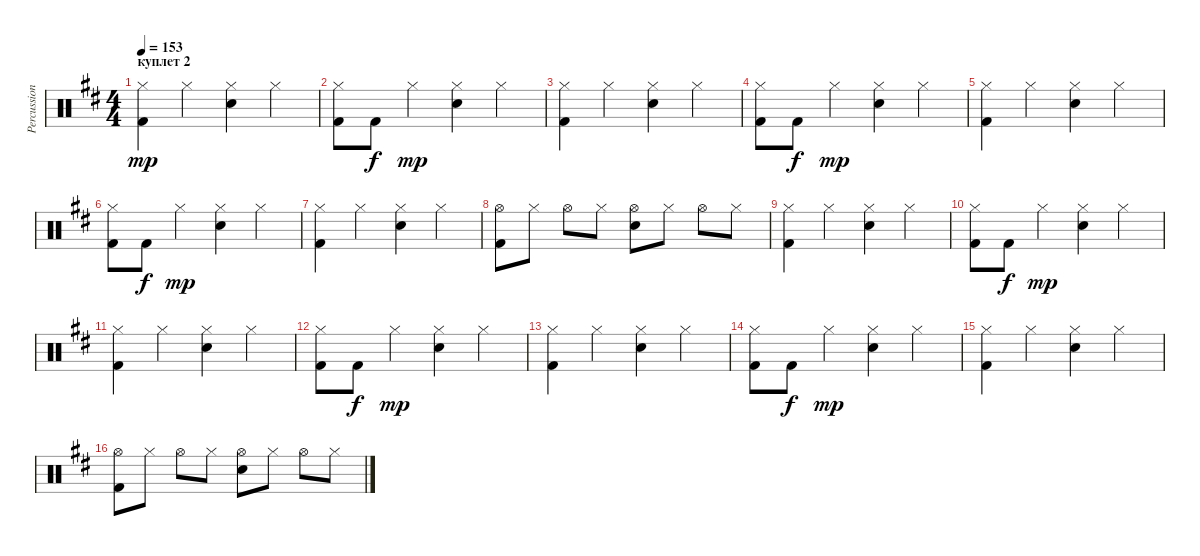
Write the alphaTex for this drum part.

\track ("Percussion" "Percussion") {instrument percussion}
\staff {score}
\articulation defaults
\ts (4 4)
\section ("" "куплет 2")
\tempo 153
\clef neutral
\ks bminor
("Kick (hit) 2" "Hi-Hat (closed)").4{dy mp} "Hi-Hat (closed)".4 ("Electric Snare (hit)" "Hi-Hat (closed)").4 "Hi-Hat (closed)".4 |
("Kick (hit) 2" "Hi-Hat (closed)").8 "Kick (hit) 2".8{dy f} "Hi-Hat (closed)".4{dy mp} ("Electric Snare (hit)" "Hi-Hat (closed)").4 "Hi-Hat (closed)".4 |
("Kick (hit) 2" "Hi-Hat (closed)").4 "Hi-Hat (closed)".4 ("Electric Snare (hit)" "Hi-Hat (closed)").4 "Hi-Hat (closed)".4 |
("Kick (hit) 2" "Hi-Hat (closed)").8 "Kick (hit) 2".8{dy f} "Hi-Hat (closed)".4{dy mp} ("Electric Snare (hit)" "Hi-Hat (closed)").4 "Hi-Hat (closed)".4 |
("Kick (hit) 2" "Hi-Hat (closed)").4 "Hi-Hat (closed)".4 ("Electric Snare (hit)" "Hi-Hat (closed)").4 "Hi-Hat (closed)".4 |
("Kick (hit) 2" "Hi-Hat (closed)").8 "Kick (hit) 2".8{dy f} "Hi-Hat (closed)".4{dy mp} ("Electric Snare (hit)" "Hi-Hat (closed)").4 "Hi-Hat (closed)".4 |
("Kick (hit) 2" "Hi-Hat (closed)").4 "Hi-Hat (closed)".4 ("Electric Snare (hit)" "Hi-Hat (closed)").4 "Hi-Hat (closed)".4 |
("Hi-Hat (open)" "Kick (hit) 2").8 "Hi-Hat (closed)".8 "Hi-Hat (open)".8 "Hi-Hat (closed)".8 ("Hi-Hat (open)" "Electric Snare (hit)").8 "Hi-Hat (closed)".8 "Hi-Hat (open)".8 "Hi-Hat (closed)".8 |
("Kick (hit) 2" "Hi-Hat (closed)").4 "Hi-Hat (closed)".4 ("Electric Snare (hit)" "Hi-Hat (closed)").4 "Hi-Hat (closed)".4 |
("Kick (hit) 2" "Hi-Hat (closed)").8 "Kick (hit) 2".8{dy f} "Hi-Hat (closed)".4{dy mp} ("Electric Snare (hit)" "Hi-Hat (closed)").4 "Hi-Hat (closed)".4 |
("Kick (hit) 2" "Hi-Hat (closed)").4 "Hi-Hat (closed)".4 ("Electric Snare (hit)" "Hi-Hat (closed)").4 "Hi-Hat (closed)".4 |
("Kick (hit) 2" "Hi-Hat (closed)").8 "Kick (hit) 2".8{dy f} "Hi-Hat (closed)".4{dy mp} ("Electric Snare (hit)" "Hi-Hat (closed)").4 "Hi-Hat (closed)".4 |
("Kick (hit) 2" "Hi-Hat (closed)").4 "Hi-Hat (closed)".4 ("Electric Snare (hit)" "Hi-Hat (closed)").4 "Hi-Hat (closed)".4 |
("Kick (hit) 2" "Hi-Hat (closed)").8 "Kick (hit) 2".8{dy f} "Hi-Hat (closed)".4{dy mp} ("Electric Snare (hit)" "Hi-Hat (closed)").4 "Hi-Hat (closed)".4 |
("Kick (hit) 2" "Hi-Hat (closed)").4 "Hi-Hat (closed)".4 ("Electric Snare (hit)" "Hi-Hat (closed)").4 "Hi-Hat (closed)".4 |
("Hi-Hat (open)" "Kick (hit) 2").8 "Hi-Hat (closed)".8 "Hi-Hat (open)".8 "Hi-Hat (closed)".8 ("Hi-Hat (open)" "Electric Snare (hit)").8 "Hi-Hat (closed)".8 "Hi-Hat (open)".8 "Hi-Hat (closed)".8
